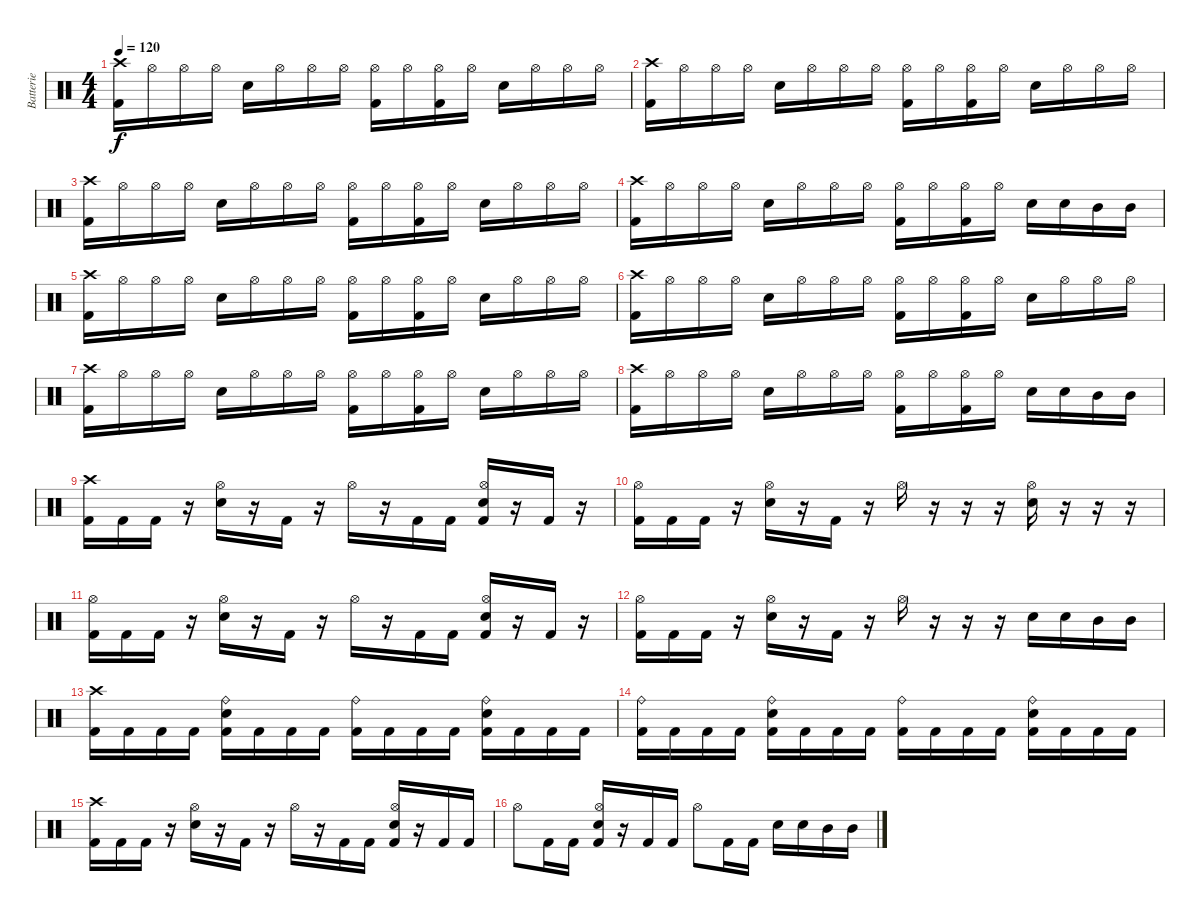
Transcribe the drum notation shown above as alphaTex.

\track ("Batterie" "Batterie") {instrument percussion}
\staff {score}
\articulation defaults
\ts (4 4)
\tempo 120
\clef neutral
\ks c
("Crash high (hit)" "Kick (hit) 2").16{dy f} "Hi-Hat (open)".16 "Hi-Hat (open)".16 "Hi-Hat (open)".16 "Electric Snare (hit)".16 "Hi-Hat (open)".16 "Hi-Hat (open)".16 "Hi-Hat (open)".16 ("Hi-Hat (open)" "Kick (hit) 2").16 "Hi-Hat (open)".16 ("Hi-Hat (open)" "Kick (hit) 2").16 "Hi-Hat (open)".16 "Electric Snare (hit)".16 "Hi-Hat (open)".16 "Hi-Hat (open)".16 "Hi-Hat (open)".16 |
("Crash high (hit)" "Kick (hit) 2").16 "Hi-Hat (open)".16 "Hi-Hat (open)".16 "Hi-Hat (open)".16 "Electric Snare (hit)".16 "Hi-Hat (open)".16 "Hi-Hat (open)".16 "Hi-Hat (open)".16 ("Hi-Hat (open)" "Kick (hit) 2").16 "Hi-Hat (open)".16 ("Hi-Hat (open)" "Kick (hit) 2").16 "Hi-Hat (open)".16 "Electric Snare (hit)".16 "Hi-Hat (open)".16 "Hi-Hat (open)".16 "Hi-Hat (open)".16 |
("Crash high (hit)" "Kick (hit) 2").16 "Hi-Hat (open)".16 "Hi-Hat (open)".16 "Hi-Hat (open)".16 "Electric Snare (hit)".16 "Hi-Hat (open)".16 "Hi-Hat (open)".16 "Hi-Hat (open)".16 ("Hi-Hat (open)" "Kick (hit) 2").16 "Hi-Hat (open)".16 ("Hi-Hat (open)" "Kick (hit) 2").16 "Hi-Hat (open)".16 "Electric Snare (hit)".16 "Hi-Hat (open)".16 "Hi-Hat (open)".16 "Hi-Hat (open)".16 |
("Crash high (hit)" "Kick (hit) 2").16 "Hi-Hat (open)".16 "Hi-Hat (open)".16 "Hi-Hat (open)".16 "Electric Snare (hit)".16 "Hi-Hat (open)".16 "Hi-Hat (open)".16 "Hi-Hat (open)".16 ("Hi-Hat (open)" "Kick (hit) 2").16 "Hi-Hat (open)".16 ("Hi-Hat (open)" "Kick (hit) 2").16 "Hi-Hat (open)".16 "Electric Snare (hit)".16 "Electric Snare (hit)".16 "Mid Tom (hit)".16 "Mid Tom (hit)".16 |
("Crash high (hit)" "Kick (hit) 2").16 "Hi-Hat (open)".16 "Hi-Hat (open)".16 "Hi-Hat (open)".16 "Electric Snare (hit)".16 "Hi-Hat (open)".16 "Hi-Hat (open)".16 "Hi-Hat (open)".16 ("Hi-Hat (open)" "Kick (hit) 2").16 "Hi-Hat (open)".16 ("Hi-Hat (open)" "Kick (hit) 2").16 "Hi-Hat (open)".16 "Electric Snare (hit)".16 "Hi-Hat (open)".16 "Hi-Hat (open)".16 "Hi-Hat (open)".16 |
("Crash high (hit)" "Kick (hit) 2").16 "Hi-Hat (open)".16 "Hi-Hat (open)".16 "Hi-Hat (open)".16 "Electric Snare (hit)".16 "Hi-Hat (open)".16 "Hi-Hat (open)".16 "Hi-Hat (open)".16 ("Hi-Hat (open)" "Kick (hit) 2").16 "Hi-Hat (open)".16 ("Hi-Hat (open)" "Kick (hit) 2").16 "Hi-Hat (open)".16 "Electric Snare (hit)".16 "Hi-Hat (open)".16 "Hi-Hat (open)".16 "Hi-Hat (open)".16 |
("Crash high (hit)" "Kick (hit) 2").16 "Hi-Hat (open)".16 "Hi-Hat (open)".16 "Hi-Hat (open)".16 "Electric Snare (hit)".16 "Hi-Hat (open)".16 "Hi-Hat (open)".16 "Hi-Hat (open)".16 ("Hi-Hat (open)" "Kick (hit) 2").16 "Hi-Hat (open)".16 ("Hi-Hat (open)" "Kick (hit) 2").16 "Hi-Hat (open)".16 "Electric Snare (hit)".16 "Hi-Hat (open)".16 "Hi-Hat (open)".16 "Hi-Hat (open)".16 |
("Crash high (hit)" "Kick (hit) 2").16 "Hi-Hat (open)".16 "Hi-Hat (open)".16 "Hi-Hat (open)".16 "Electric Snare (hit)".16 "Hi-Hat (open)".16 "Hi-Hat (open)".16 "Hi-Hat (open)".16 ("Hi-Hat (open)" "Kick (hit) 2").16 "Hi-Hat (open)".16 ("Hi-Hat (open)" "Kick (hit) 2").16 "Hi-Hat (open)".16 "Electric Snare (hit)".16 "Electric Snare (hit)".16 "Mid Tom (hit)".16 "Mid Tom (hit)".16 |
("Kick (hit) 2" "Crash high (hit)").16 "Kick (hit) 2".16 "Kick (hit) 2".16 r.16 ("Electric Snare (hit)" "Hi-Hat (open)").16 r.16 "Kick (hit) 2".16 r.16 "Hi-Hat (open)".16 r.16 "Kick (hit) 2".16 "Kick (hit) 2".16 ("Electric Snare (hit)" "Kick (hit) 2" "Hi-Hat (open)").16 r.16 "Kick (hit) 2".16 r.16 |
("Kick (hit) 2" "Hi-Hat (open)").16 "Kick (hit) 2".16 "Kick (hit) 2".16 r.16 ("Electric Snare (hit)" "Hi-Hat (open)").16 r.16 "Kick (hit) 2".16 r.16 "Hi-Hat (open)".16 r.16 r.16 r.16 ("Electric Snare (hit)" "Hi-Hat (open)").16 r.16 r.16 r.16 |
("Kick (hit) 2" "Hi-Hat (open)").16 "Kick (hit) 2".16 "Kick (hit) 2".16 r.16 ("Electric Snare (hit)" "Hi-Hat (open)").16 r.16 "Kick (hit) 2".16 r.16 "Hi-Hat (open)".16 r.16 "Kick (hit) 2".16 "Kick (hit) 2".16 ("Electric Snare (hit)" "Kick (hit) 2" "Hi-Hat (open)").16 r.16 "Kick (hit) 2".16 r.16 |
("Kick (hit) 2" "Hi-Hat (open)").16 "Kick (hit) 2".16 "Kick (hit) 2".16 r.16 ("Electric Snare (hit)" "Hi-Hat (open)").16 r.16 "Kick (hit) 2".16 r.16 "Hi-Hat (open)".16 r.16 r.16 r.16 "Electric Snare (hit)".16 "Electric Snare (hit)".16 "Mid Tom (hit)".16 "Mid Tom (hit)".16 |
("Crash high (hit)" "Kick (hit) 2").16 "Kick (hit) 2".16 "Kick (hit) 2".16 "Kick (hit) 2".16 ("Electric Snare (hit)" "Ride (bell)" "Kick (hit) 2").16 "Kick (hit) 2".16 "Kick (hit) 2".16 "Kick (hit) 2".16 ("Ride (bell)" "Kick (hit) 2").16 "Kick (hit) 2".16 "Kick (hit) 2".16 "Kick (hit) 2".16 ("Electric Snare (hit)" "Ride (bell)" "Kick (hit) 2").16 "Kick (hit) 2".16 "Kick (hit) 2".16 "Kick (hit) 2".16 |
("Ride (bell)" "Kick (hit) 2").16 "Kick (hit) 2".16 "Kick (hit) 2".16 "Kick (hit) 2".16 ("Electric Snare (hit)" "Ride (bell)" "Kick (hit) 2").16 "Kick (hit) 2".16 "Kick (hit) 2".16 "Kick (hit) 2".16 ("Ride (bell)" "Kick (hit) 2").16 "Kick (hit) 2".16 "Kick (hit) 2".16 "Kick (hit) 2".16 ("Electric Snare (hit)" "Ride (bell)" "Kick (hit) 2").16 "Kick (hit) 2".16 "Kick (hit) 2".16 "Kick (hit) 2".16 |
("Kick (hit) 2" "Crash high (hit)").16 "Kick (hit) 2".16 "Kick (hit) 2".16 r.16 ("Electric Snare (hit)" "Hi-Hat (open)").16 r.16 "Kick (hit) 2".16 r.16 "Hi-Hat (open)".16 r.16 "Kick (hit) 2".16 "Kick (hit) 2".16 ("Electric Snare (hit)" "Kick (hit) 2" "Hi-Hat (open)").16 r.16 "Kick (hit) 2".16 "Kick (hit) 2".16 |
"Hi-Hat (open)".8 "Kick (hit) 2".16 "Kick (hit) 2".16 ("Hi-Hat (open)" "Kick (hit) 2" "Electric Snare (hit)").16 r.16 "Kick (hit) 2".16 "Kick (hit) 2".16 "Hi-Hat (open)".8 "Kick (hit) 2".16 "Kick (hit) 2".16 "Electric Snare (hit)".16 "Electric Snare (hit)".16 "Mid Tom (hit)".16 "Mid Tom (hit)".16
